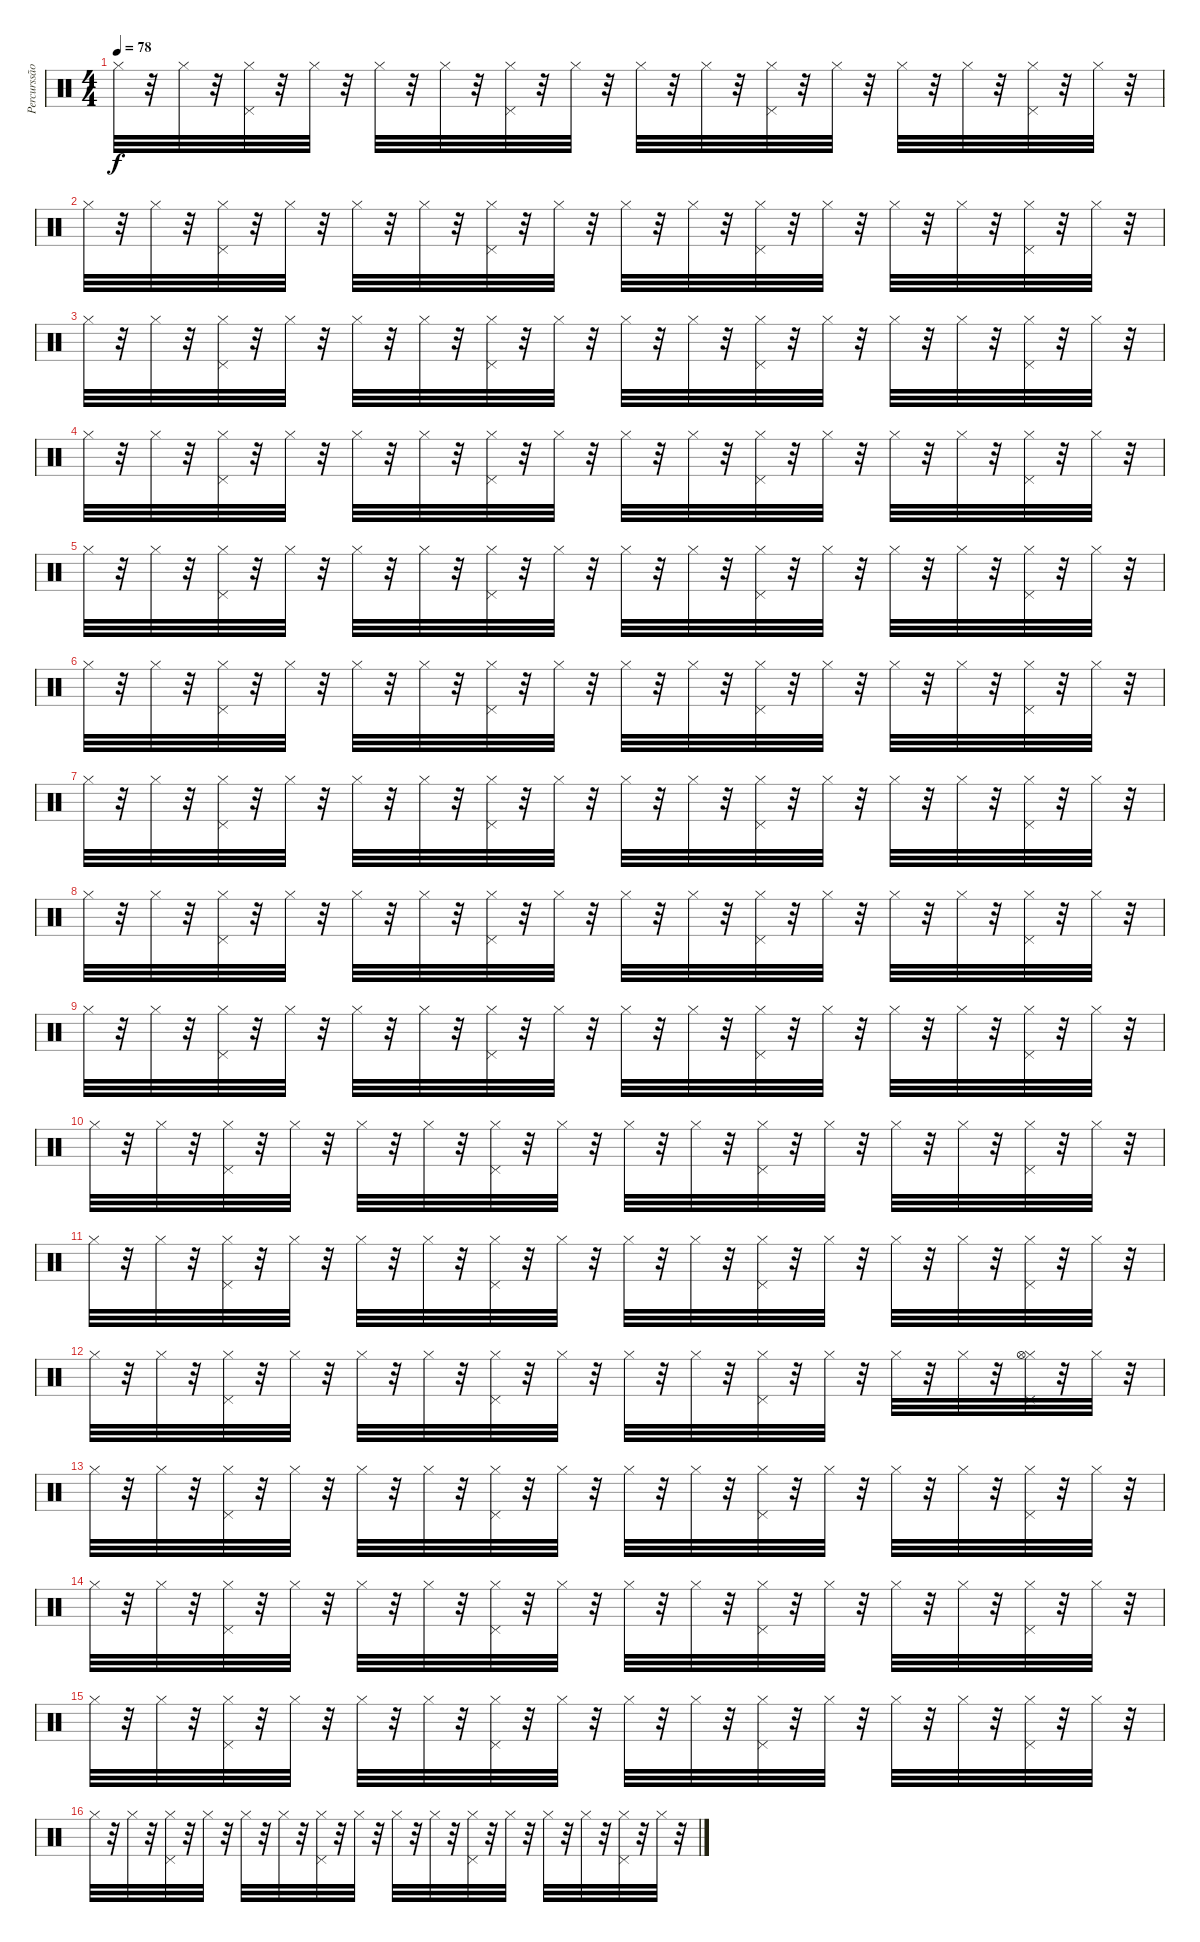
\track ("Percurssão" "Percurssão") {instrument percussion}
\staff {score}
\articulation defaults
\ts (4 4)
\tempo 78
\clef neutral
\ks c "Hi-Hat (closed)".32{dy f}
r.32 "Hi-Hat (closed)".32 r.32 ("Hi-Hat (closed)" "Pedal Hi-Hat (hit)").32 r.32 "Hi-Hat (closed)".32 r.32 "Hi-Hat (closed)".32 r.32 "Hi-Hat (closed)".32 r.32 ("Hi-Hat (closed)" "Pedal Hi-Hat (hit)").32 r.32 "Hi-Hat (closed)".32 r.32 "Hi-Hat (closed)".32 r.32 "Hi-Hat (closed)".32 r.32 ("Hi-Hat (closed)" "Pedal Hi-Hat (hit)").32 r.32 "Hi-Hat (closed)".32 r.32 "Hi-Hat (closed)".32 r.32 "Hi-Hat (closed)".32 r.32 ("Hi-Hat (closed)" "Pedal Hi-Hat (hit)").32 r.32 "Hi-Hat (closed)".32 r.32 |
"Hi-Hat (closed)".32 r.32 "Hi-Hat (closed)".32 r.32 ("Hi-Hat (closed)" "Pedal Hi-Hat (hit)").32 r.32 "Hi-Hat (closed)".32 r.32 "Hi-Hat (closed)".32 r.32 "Hi-Hat (closed)".32 r.32 ("Hi-Hat (closed)" "Pedal Hi-Hat (hit)").32 r.32 "Hi-Hat (closed)".32 r.32 "Hi-Hat (closed)".32 r.32 "Hi-Hat (closed)".32 r.32 ("Hi-Hat (closed)" "Pedal Hi-Hat (hit)").32 r.32 "Hi-Hat (closed)".32 r.32 "Hi-Hat (closed)".32 r.32 "Hi-Hat (closed)".32 r.32 ("Hi-Hat (closed)" "Pedal Hi-Hat (hit)").32 r.32 "Hi-Hat (closed)".32 r.32 |
"Hi-Hat (closed)".32 r.32 "Hi-Hat (closed)".32 r.32 ("Hi-Hat (closed)" "Pedal Hi-Hat (hit)").32 r.32 "Hi-Hat (closed)".32 r.32 "Hi-Hat (closed)".32 r.32 "Hi-Hat (closed)".32 r.32 ("Hi-Hat (closed)" "Pedal Hi-Hat (hit)").32 r.32 "Hi-Hat (closed)".32 r.32 "Hi-Hat (closed)".32 r.32 "Hi-Hat (closed)".32 r.32 ("Hi-Hat (closed)" "Pedal Hi-Hat (hit)").32 r.32 "Hi-Hat (closed)".32 r.32 "Hi-Hat (closed)".32 r.32 "Hi-Hat (closed)".32 r.32 ("Hi-Hat (closed)" "Pedal Hi-Hat (hit)").32 r.32 "Hi-Hat (closed)".32 r.32 |
"Hi-Hat (closed)".32 r.32 "Hi-Hat (closed)".32 r.32 ("Hi-Hat (closed)" "Pedal Hi-Hat (hit)").32 r.32 "Hi-Hat (closed)".32 r.32 "Hi-Hat (closed)".32 r.32 "Hi-Hat (closed)".32 r.32 ("Hi-Hat (closed)" "Pedal Hi-Hat (hit)").32 r.32 "Hi-Hat (closed)".32 r.32 "Hi-Hat (closed)".32 r.32 "Hi-Hat (closed)".32 r.32 ("Hi-Hat (closed)" "Pedal Hi-Hat (hit)").32 r.32 "Hi-Hat (closed)".32 r.32 "Hi-Hat (closed)".32 r.32 "Hi-Hat (closed)".32 r.32 ("Hi-Hat (closed)" "Pedal Hi-Hat (hit)").32 r.32 "Hi-Hat (closed)".32 r.32 |
"Hi-Hat (closed)".32 r.32 "Hi-Hat (closed)".32 r.32 ("Hi-Hat (closed)" "Pedal Hi-Hat (hit)").32 r.32 "Hi-Hat (closed)".32 r.32 "Hi-Hat (closed)".32 r.32 "Hi-Hat (closed)".32 r.32 ("Hi-Hat (closed)" "Pedal Hi-Hat (hit)").32 r.32 "Hi-Hat (closed)".32 r.32 "Hi-Hat (closed)".32 r.32 "Hi-Hat (closed)".32 r.32 ("Hi-Hat (closed)" "Pedal Hi-Hat (hit)").32 r.32 "Hi-Hat (closed)".32 r.32 "Hi-Hat (closed)".32 r.32 "Hi-Hat (closed)".32 r.32 ("Hi-Hat (closed)" "Pedal Hi-Hat (hit)").32 r.32 "Hi-Hat (closed)".32 r.32 |
"Hi-Hat (closed)".32 r.32 "Hi-Hat (closed)".32 r.32 ("Hi-Hat (closed)" "Pedal Hi-Hat (hit)").32 r.32 "Hi-Hat (closed)".32 r.32 "Hi-Hat (closed)".32 r.32 "Hi-Hat (closed)".32 r.32 ("Hi-Hat (closed)" "Pedal Hi-Hat (hit)").32 r.32 "Hi-Hat (closed)".32 r.32 "Hi-Hat (closed)".32 r.32 "Hi-Hat (closed)".32 r.32 ("Hi-Hat (closed)" "Pedal Hi-Hat (hit)").32 r.32 "Hi-Hat (closed)".32 r.32 "Hi-Hat (closed)".32 r.32 "Hi-Hat (closed)".32 r.32 ("Hi-Hat (closed)" "Pedal Hi-Hat (hit)").32 r.32 "Hi-Hat (closed)".32 r.32 |
"Hi-Hat (closed)".32 r.32 "Hi-Hat (closed)".32 r.32 ("Hi-Hat (closed)" "Pedal Hi-Hat (hit)").32 r.32 "Hi-Hat (closed)".32 r.32 "Hi-Hat (closed)".32 r.32 "Hi-Hat (closed)".32 r.32 ("Hi-Hat (closed)" "Pedal Hi-Hat (hit)").32 r.32 "Hi-Hat (closed)".32 r.32 "Hi-Hat (closed)".32 r.32 "Hi-Hat (closed)".32 r.32 ("Hi-Hat (closed)" "Pedal Hi-Hat (hit)").32 r.32 "Hi-Hat (closed)".32 r.32 "Hi-Hat (closed)".32 r.32 "Hi-Hat (closed)".32 r.32 ("Hi-Hat (closed)" "Pedal Hi-Hat (hit)").32 r.32 "Hi-Hat (closed)".32 r.32 |
"Hi-Hat (closed)".32 r.32 "Hi-Hat (closed)".32 r.32 ("Hi-Hat (closed)" "Pedal Hi-Hat (hit)").32 r.32 "Hi-Hat (closed)".32 r.32 "Hi-Hat (closed)".32 r.32 "Hi-Hat (closed)".32 r.32 ("Hi-Hat (closed)" "Pedal Hi-Hat (hit)").32 r.32 "Hi-Hat (closed)".32 r.32 "Hi-Hat (closed)".32 r.32 "Hi-Hat (closed)".32 r.32 ("Hi-Hat (closed)" "Pedal Hi-Hat (hit)").32 r.32 "Hi-Hat (closed)".32 r.32 "Hi-Hat (closed)".32 r.32 "Hi-Hat (closed)".32 r.32 ("Hi-Hat (closed)" "Pedal Hi-Hat (hit)").32 r.32 "Hi-Hat (closed)".32 r.32 |
"Hi-Hat (closed)".32 r.32 "Hi-Hat (closed)".32 r.32 ("Hi-Hat (closed)" "Pedal Hi-Hat (hit)").32 r.32 "Hi-Hat (closed)".32 r.32 "Hi-Hat (closed)".32 r.32 "Hi-Hat (closed)".32 r.32 ("Hi-Hat (closed)" "Pedal Hi-Hat (hit)").32 r.32 "Hi-Hat (closed)".32 r.32 "Hi-Hat (closed)".32 r.32 "Hi-Hat (closed)".32 r.32 ("Hi-Hat (closed)" "Pedal Hi-Hat (hit)").32 r.32 "Hi-Hat (closed)".32 r.32 "Hi-Hat (closed)".32 r.32 "Hi-Hat (closed)".32 r.32 ("Hi-Hat (closed)" "Pedal Hi-Hat (hit)").32 r.32 "Hi-Hat (closed)".32 r.32 |
"Hi-Hat (closed)".32 r.32 "Hi-Hat (closed)".32 r.32 ("Hi-Hat (closed)" "Pedal Hi-Hat (hit)").32 r.32 "Hi-Hat (closed)".32 r.32 "Hi-Hat (closed)".32 r.32 "Hi-Hat (closed)".32 r.32 ("Hi-Hat (closed)" "Pedal Hi-Hat (hit)").32 r.32 "Hi-Hat (closed)".32 r.32 "Hi-Hat (closed)".32 r.32 "Hi-Hat (closed)".32 r.32 ("Hi-Hat (closed)" "Pedal Hi-Hat (hit)").32 r.32 "Hi-Hat (closed)".32 r.32 "Hi-Hat (closed)".32 r.32 "Hi-Hat (closed)".32 r.32 ("Hi-Hat (closed)" "Pedal Hi-Hat (hit)").32 r.32 "Hi-Hat (closed)".32 r.32 |
"Hi-Hat (closed)".32 r.32 "Hi-Hat (closed)".32 r.32 ("Hi-Hat (closed)" "Pedal Hi-Hat (hit)").32 r.32 "Hi-Hat (closed)".32 r.32 "Hi-Hat (closed)".32 r.32 "Hi-Hat (closed)".32 r.32 ("Hi-Hat (closed)" "Pedal Hi-Hat (hit)").32 r.32 "Hi-Hat (closed)".32 r.32 "Hi-Hat (closed)".32 r.32 "Hi-Hat (closed)".32 r.32 ("Hi-Hat (closed)" "Pedal Hi-Hat (hit)").32 r.32 "Hi-Hat (closed)".32 r.32 "Hi-Hat (closed)".32 r.32 "Hi-Hat (closed)".32 r.32 ("Hi-Hat (closed)" "Pedal Hi-Hat (hit)").32 r.32 "Hi-Hat (closed)".32 r.32 |
"Hi-Hat (closed)".32 r.32 "Hi-Hat (closed)".32 r.32 ("Hi-Hat (closed)" "Pedal Hi-Hat (hit)").32 r.32 "Hi-Hat (closed)".32 r.32 "Hi-Hat (closed)".32 r.32 "Hi-Hat (closed)".32 r.32 ("Hi-Hat (closed)" "Pedal Hi-Hat (hit)").32 r.32 "Hi-Hat (closed)".32 r.32 "Hi-Hat (closed)".32 r.32 "Hi-Hat (closed)".32 r.32 ("Hi-Hat (closed)" "Pedal Hi-Hat (hit)").32 r.32 "Hi-Hat (closed)".32 r.32 "Hi-Hat (closed)".32 r.32 "Hi-Hat (closed)".32 r.32 ("Hi-Hat (closed)" "Pedal Hi-Hat (hit)" "Hi-Hat (open)").32 r.32 "Hi-Hat (closed)".32 r.32 |
"Hi-Hat (closed)".32 r.32 "Hi-Hat (closed)".32 r.32 ("Hi-Hat (closed)" "Pedal Hi-Hat (hit)").32 r.32 "Hi-Hat (closed)".32 r.32 "Hi-Hat (closed)".32 r.32 "Hi-Hat (closed)".32 r.32 ("Hi-Hat (closed)" "Pedal Hi-Hat (hit)").32 r.32 "Hi-Hat (closed)".32 r.32 "Hi-Hat (closed)".32 r.32 "Hi-Hat (closed)".32 r.32 ("Hi-Hat (closed)" "Pedal Hi-Hat (hit)").32 r.32 "Hi-Hat (closed)".32 r.32 "Hi-Hat (closed)".32 r.32 "Hi-Hat (closed)".32 r.32 ("Hi-Hat (closed)" "Pedal Hi-Hat (hit)").32 r.32 "Hi-Hat (closed)".32 r.32 |
"Hi-Hat (closed)".32 r.32 "Hi-Hat (closed)".32 r.32 ("Hi-Hat (closed)" "Pedal Hi-Hat (hit)").32 r.32 "Hi-Hat (closed)".32 r.32 "Hi-Hat (closed)".32 r.32 "Hi-Hat (closed)".32 r.32 ("Hi-Hat (closed)" "Pedal Hi-Hat (hit)").32 r.32 "Hi-Hat (closed)".32 r.32 "Hi-Hat (closed)".32 r.32 "Hi-Hat (closed)".32 r.32 ("Hi-Hat (closed)" "Pedal Hi-Hat (hit)").32 r.32 "Hi-Hat (closed)".32 r.32 "Hi-Hat (closed)".32 r.32 "Hi-Hat (closed)".32 r.32 ("Hi-Hat (closed)" "Pedal Hi-Hat (hit)").32 r.32 "Hi-Hat (closed)".32 r.32 |
"Hi-Hat (closed)".32 r.32 "Hi-Hat (closed)".32 r.32 ("Hi-Hat (closed)" "Pedal Hi-Hat (hit)").32 r.32 "Hi-Hat (closed)".32 r.32 "Hi-Hat (closed)".32 r.32 "Hi-Hat (closed)".32 r.32 ("Hi-Hat (closed)" "Pedal Hi-Hat (hit)").32 r.32 "Hi-Hat (closed)".32 r.32 "Hi-Hat (closed)".32 r.32 "Hi-Hat (closed)".32 r.32 ("Hi-Hat (closed)" "Pedal Hi-Hat (hit)").32 r.32 "Hi-Hat (closed)".32 r.32 "Hi-Hat (closed)".32 r.32 "Hi-Hat (closed)".32 r.32 ("Hi-Hat (closed)" "Pedal Hi-Hat (hit)").32 r.32 "Hi-Hat (closed)".32 r.32 |
"Hi-Hat (closed)".32 r.32 "Hi-Hat (closed)".32 r.32 ("Hi-Hat (closed)" "Pedal Hi-Hat (hit)").32 r.32 "Hi-Hat (closed)".32 r.32 "Hi-Hat (closed)".32 r.32 "Hi-Hat (closed)".32 r.32 ("Hi-Hat (closed)" "Pedal Hi-Hat (hit)").32 r.32 "Hi-Hat (closed)".32 r.32 "Hi-Hat (closed)".32 r.32 "Hi-Hat (closed)".32 r.32 ("Hi-Hat (closed)" "Pedal Hi-Hat (hit)").32 r.32 "Hi-Hat (closed)".32 r.32 "Hi-Hat (closed)".32 r.32 "Hi-Hat (closed)".32 r.32 ("Hi-Hat (closed)" "Pedal Hi-Hat (hit)").32 r.32 "Hi-Hat (closed)".32 r.32
